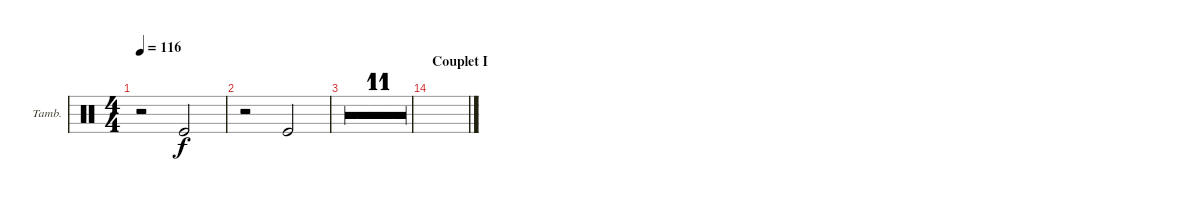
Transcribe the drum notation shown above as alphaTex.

\bracketExtendMode groupsimilarinstruments
\firstSystemTrackNameOrientation horizontal
\otherSystemsTrackNameOrientation horizontal
\track ("Ray Cooper" "Tamb.") {multiBarRest instrument percussion}
\staff {score}
\articulation defaults
\ts (4 4)
\tempo 116
\clef neutral
\ks c
r.2{dy f} "Kick (hit)".2 |
r.2 "Kick (hit)".2 |
|
|
|
|
|
|
|
|
|
|
|
\section ("" "Couplet I")
